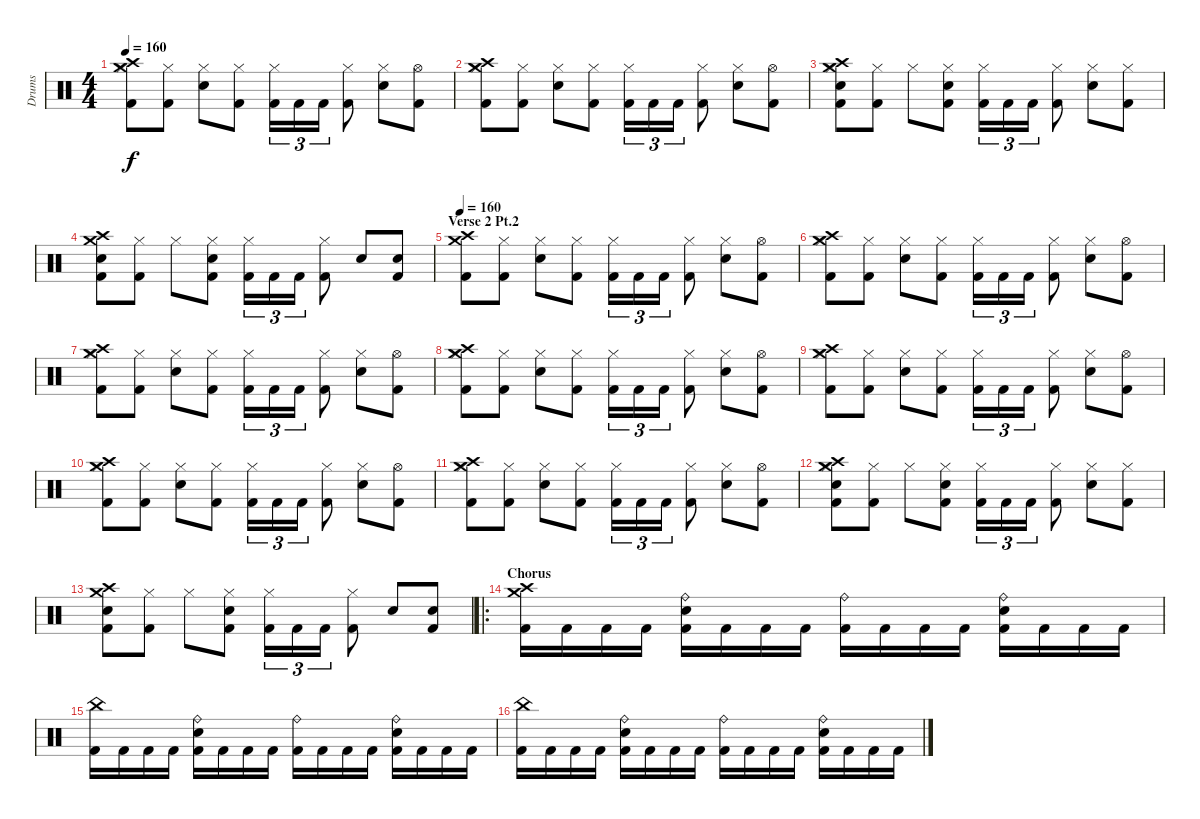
\track ("Drums" "Drums") {instrument percussion}
\staff {score}
\articulation defaults
\ts (4 4)
\tempo 160
\clef neutral
\ks c
("Crash medium (hit)" "Crash high (hit)" "Hi-Hat (closed)" "Kick (hit) 2").8{dy f} ("Hi-Hat (closed)" "Kick (hit) 2").8 ("Hi-Hat (closed)" "Electric Snare (hit)").8 ("Hi-Hat (closed)" "Kick (hit) 2").8 ("Hi-Hat (closed)" "Kick (hit) 2").16{tu (3 2)} "Kick (hit) 2".16{tu (3 2)} "Kick (hit) 2".16{tu (3 2)} ("Hi-Hat (closed)" "Kick (hit) 2").8 ("Hi-Hat (closed)" "Electric Snare (hit)").8 ("Hi-Hat (open)" "Kick (hit) 2").8 |
("Crash medium (hit)" "Crash high (hit)" "Hi-Hat (closed)" "Kick (hit) 2").8 ("Hi-Hat (closed)" "Kick (hit) 2").8 ("Hi-Hat (closed)" "Electric Snare (hit)").8 ("Hi-Hat (closed)" "Kick (hit) 2").8 ("Hi-Hat (closed)" "Kick (hit) 2").16{tu (3 2)} "Kick (hit) 2".16{tu (3 2)} "Kick (hit) 2".16{tu (3 2)} ("Hi-Hat (closed)" "Kick (hit) 2").8 ("Hi-Hat (closed)" "Electric Snare (hit)").8 ("Hi-Hat (open)" "Kick (hit) 2").8 |
("Crash medium (hit)" "Crash high (hit)" "Hi-Hat (closed)" "Electric Snare (hit)" "Kick (hit) 2").8 ("Hi-Hat (closed)" "Kick (hit) 2").8 "Hi-Hat (closed)".8 ("Hi-Hat (closed)" "Electric Snare (hit)" "Kick (hit) 2").8 ("Hi-Hat (closed)" "Kick (hit) 2").16{tu (3 2)} "Kick (hit) 2".16{tu (3 2)} "Kick (hit) 2".16{tu (3 2)} ("Hi-Hat (closed)" "Kick (hit) 2").8 ("Hi-Hat (closed)" "Electric Snare (hit)").8 ("Hi-Hat (closed)" "Kick (hit) 2").8 |
("Crash medium (hit)" "Crash high (hit)" "Electric Snare (hit)" "Kick (hit) 2").8 ("Hi-Hat (closed)" "Kick (hit) 2").8 "Hi-Hat (closed)".8 ("Hi-Hat (closed)" "Electric Snare (hit)" "Kick (hit) 2").8 ("Hi-Hat (closed)" "Kick (hit) 2").16{tu (3 2)} "Kick (hit) 2".16{tu (3 2)} "Kick (hit) 2".16{tu (3 2)} ("Hi-Hat (closed)" "Kick (hit) 2").8 "Electric Snare (hit)".8 ("Electric Snare (hit)" "Kick (hit) 2").8 |
\section ("" "Verse 2 Pt.2")
\tempo 160
("Crash medium (hit)" "Crash high (hit)" "Kick (hit) 2").8 ("Hi-Hat (closed)" "Kick (hit) 2").8 ("Hi-Hat (closed)" "Electric Snare (hit)").8 ("Hi-Hat (closed)" "Kick (hit) 2").8 ("Hi-Hat (closed)" "Kick (hit) 2").16{tu (3 2)} "Kick (hit) 2".16{tu (3 2)} "Kick (hit) 2".16{tu (3 2)} ("Hi-Hat (closed)" "Kick (hit) 2").8 ("Hi-Hat (closed)" "Electric Snare (hit)").8 ("Hi-Hat (open)" "Kick (hit) 2").8 |
("Crash medium (hit)" "Crash high (hit)" "Hi-Hat (closed)" "Kick (hit) 2").8 ("Hi-Hat (closed)" "Kick (hit) 2").8 ("Hi-Hat (closed)" "Electric Snare (hit)").8 ("Hi-Hat (closed)" "Kick (hit) 2").8 ("Hi-Hat (closed)" "Kick (hit) 2").16{tu (3 2)} "Kick (hit) 2".16{tu (3 2)} "Kick (hit) 2".16{tu (3 2)} ("Hi-Hat (closed)" "Kick (hit) 2").8 ("Hi-Hat (closed)" "Electric Snare (hit)").8 ("Hi-Hat (open)" "Kick (hit) 2").8 |
("Crash medium (hit)" "Crash high (hit)" "Hi-Hat (closed)" "Kick (hit) 2").8 ("Hi-Hat (closed)" "Kick (hit) 2").8 ("Hi-Hat (closed)" "Electric Snare (hit)").8 ("Hi-Hat (closed)" "Kick (hit) 2").8 ("Hi-Hat (closed)" "Kick (hit) 2").16{tu (3 2)} "Kick (hit) 2".16{tu (3 2)} "Kick (hit) 2".16{tu (3 2)} ("Hi-Hat (closed)" "Kick (hit) 2").8 ("Hi-Hat (closed)" "Electric Snare (hit)").8 ("Hi-Hat (open)" "Kick (hit) 2").8 |
("Crash medium (hit)" "Crash high (hit)" "Hi-Hat (closed)" "Kick (hit) 2").8 ("Hi-Hat (closed)" "Kick (hit) 2").8 ("Hi-Hat (closed)" "Electric Snare (hit)").8 ("Hi-Hat (closed)" "Kick (hit) 2").8 ("Hi-Hat (closed)" "Kick (hit) 2").16{tu (3 2)} "Kick (hit) 2".16{tu (3 2)} "Kick (hit) 2".16{tu (3 2)} ("Hi-Hat (closed)" "Kick (hit) 2").8 ("Hi-Hat (closed)" "Electric Snare (hit)").8 ("Hi-Hat (open)" "Kick (hit) 2").8 |
("Crash medium (hit)" "Crash high (hit)" "Hi-Hat (closed)" "Kick (hit) 2").8 ("Hi-Hat (closed)" "Kick (hit) 2").8 ("Hi-Hat (closed)" "Electric Snare (hit)").8 ("Hi-Hat (closed)" "Kick (hit) 2").8 ("Hi-Hat (closed)" "Kick (hit) 2").16{tu (3 2)} "Kick (hit) 2".16{tu (3 2)} "Kick (hit) 2".16{tu (3 2)} ("Hi-Hat (closed)" "Kick (hit) 2").8 ("Hi-Hat (closed)" "Electric Snare (hit)").8 ("Hi-Hat (open)" "Kick (hit) 2").8 |
("Crash medium (hit)" "Crash high (hit)" "Hi-Hat (closed)" "Kick (hit) 2").8 ("Hi-Hat (closed)" "Kick (hit) 2").8 ("Hi-Hat (closed)" "Electric Snare (hit)").8 ("Hi-Hat (closed)" "Kick (hit) 2").8 ("Hi-Hat (closed)" "Kick (hit) 2").16{tu (3 2)} "Kick (hit) 2".16{tu (3 2)} "Kick (hit) 2".16{tu (3 2)} ("Hi-Hat (closed)" "Kick (hit) 2").8 ("Hi-Hat (closed)" "Electric Snare (hit)").8 ("Hi-Hat (open)" "Kick (hit) 2").8 |
("Crash medium (hit)" "Crash high (hit)" "Hi-Hat (closed)" "Kick (hit) 2").8 ("Hi-Hat (closed)" "Kick (hit) 2").8 ("Hi-Hat (closed)" "Electric Snare (hit)").8 ("Hi-Hat (closed)" "Kick (hit) 2").8 ("Hi-Hat (closed)" "Kick (hit) 2").16{tu (3 2)} "Kick (hit) 2".16{tu (3 2)} "Kick (hit) 2".16{tu (3 2)} ("Hi-Hat (closed)" "Kick (hit) 2").8 ("Hi-Hat (closed)" "Electric Snare (hit)").8 ("Hi-Hat (open)" "Kick (hit) 2").8 |
("Crash medium (hit)" "Crash high (hit)" "Hi-Hat (closed)" "Electric Snare (hit)" "Kick (hit) 2").8 ("Hi-Hat (closed)" "Kick (hit) 2").8 "Hi-Hat (closed)".8 ("Hi-Hat (closed)" "Electric Snare (hit)" "Kick (hit) 2").8 ("Hi-Hat (closed)" "Kick (hit) 2").16{tu (3 2)} "Kick (hit) 2".16{tu (3 2)} "Kick (hit) 2".16{tu (3 2)} ("Hi-Hat (closed)" "Kick (hit) 2").8 ("Hi-Hat (closed)" "Electric Snare (hit)").8 ("Hi-Hat (closed)" "Kick (hit) 2").8 |
("Crash medium (hit)" "Crash high (hit)" "Electric Snare (hit)" "Kick (hit) 2").8 ("Hi-Hat (closed)" "Kick (hit) 2").8 "Hi-Hat (closed)".8 ("Hi-Hat (closed)" "Electric Snare (hit)" "Kick (hit) 2").8 ("Hi-Hat (closed)" "Kick (hit) 2").16{tu (3 2)} "Kick (hit) 2".16{tu (3 2)} "Kick (hit) 2".16{tu (3 2)} ("Hi-Hat (closed)" "Kick (hit) 2").8 "Electric Snare (hit)".8 ("Electric Snare (hit)" "Kick (hit) 2").8 |
\ro
\section ("" "Chorus")
("Crash medium (hit)" "Crash high (hit)" "Kick (hit) 2").16{volume 16} "Kick (hit) 2".16 "Kick (hit) 2".16 "Kick (hit) 2".16 ("Ride (bell)" "Electric Snare (hit)" "Kick (hit) 2").16 "Kick (hit) 2".16 "Kick (hit) 2".16 "Kick (hit) 2".16 ("Ride (bell)" "Kick (hit) 2").16 "Kick (hit) 2".16 "Kick (hit) 2".16 "Kick (hit) 2".16 ("Ride (bell)" "Electric Snare (hit)" "Kick (hit) 2").16 "Kick (hit) 2".16 "Kick (hit) 2".16 "Kick (hit) 2".16 |
("China (hit)" "Kick (hit) 2").16 "Kick (hit) 2".16 "Kick (hit) 2".16 "Kick (hit) 2".16 ("Ride (bell)" "Electric Snare (hit)" "Kick (hit) 2").16 "Kick (hit) 2".16 "Kick (hit) 2".16 "Kick (hit) 2".16 ("Ride (bell)" "Kick (hit) 2").16 "Kick (hit) 2".16 "Kick (hit) 2".16 "Kick (hit) 2".16 ("Ride (bell)" "Electric Snare (hit)" "Kick (hit) 2").16 "Kick (hit) 2".16 "Kick (hit) 2".16 "Kick (hit) 2".16 |
("China (hit)" "Kick (hit) 2").16 "Kick (hit) 2".16 "Kick (hit) 2".16 "Kick (hit) 2".16 ("Ride (bell)" "Electric Snare (hit)" "Kick (hit) 2").16 "Kick (hit) 2".16 "Kick (hit) 2".16 "Kick (hit) 2".16 ("Ride (bell)" "Kick (hit) 2").16 "Kick (hit) 2".16 "Kick (hit) 2".16 "Kick (hit) 2".16 ("Ride (bell)" "Electric Snare (hit)" "Kick (hit) 2").16 "Kick (hit) 2".16 "Kick (hit) 2".16 "Kick (hit) 2".16
